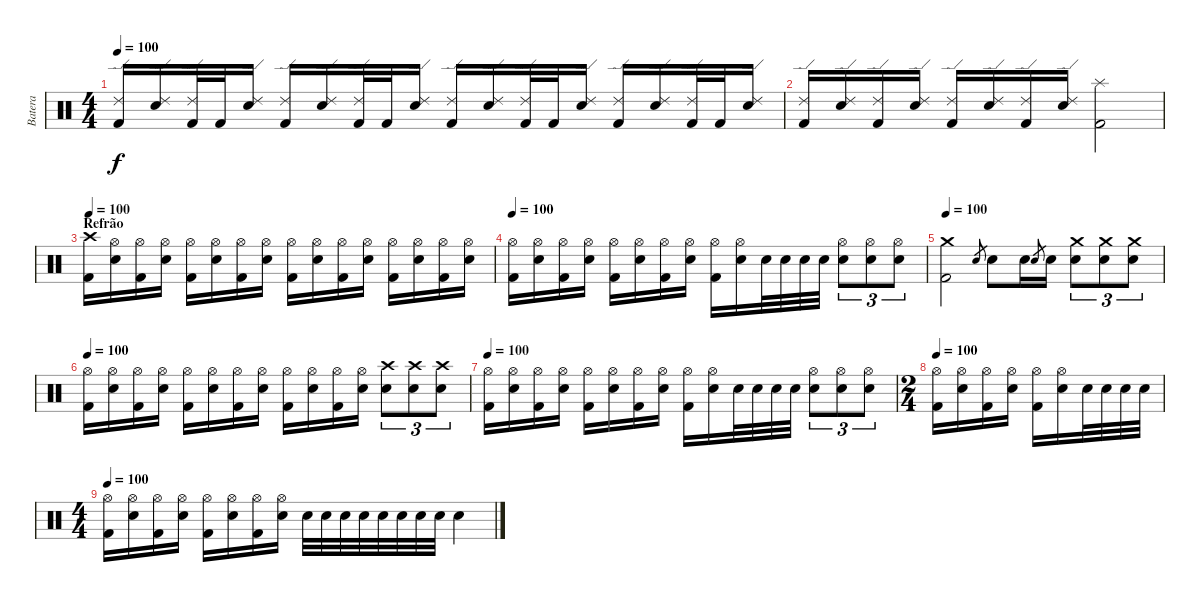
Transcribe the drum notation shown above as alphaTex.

\track ("Batera" "Batera") {instrument percussion}
\staff {score}
\articulation defaults
\ts (4 4)
\tempo 100
\clef neutral
\ks c
("Ride (edge) 2" "Kick (hit) 2").16{dy f} ("Ride (edge) 2" "Snare (hit) 2").16 ("Ride (edge) 2" "Kick (hit) 2").32 "Kick (hit) 2".32 ("Ride (edge) 2" "Snare (hit) 2").16 ("Ride (edge) 2" "Kick (hit) 2").16 ("Ride (edge) 2" "Snare (hit) 2").16 ("Ride (edge) 2" "Kick (hit) 2").32 "Kick (hit) 2".32 ("Ride (edge) 2" "Snare (hit) 2").16 ("Ride (edge) 2" "Kick (hit) 2").16 ("Ride (edge) 2" "Snare (hit) 2").16 ("Ride (edge) 2" "Kick (hit) 2").32 "Kick (hit) 2".32 ("Ride (edge) 2" "Snare (hit) 2").16 ("Ride (edge) 2" "Kick (hit) 2").16 ("Ride (edge) 2" "Snare (hit) 2").16 ("Ride (edge) 2" "Kick (hit) 2").32 "Kick (hit) 2".32 ("Ride (edge) 2" "Snare (hit) 2").16 |
("Ride (edge) 2" "Kick (hit) 2").16 ("Ride (edge) 2" "Snare (hit) 2").16 ("Ride (edge) 2" "Kick (hit) 2").16 ("Ride (edge) 2" "Snare (hit) 2").16 ("Ride (edge) 2" "Kick (hit) 2").16 ("Ride (edge) 2" "Snare (hit) 2").16 ("Ride (edge) 2" "Kick (hit) 2").16 ("Ride (edge) 2" "Snare (hit) 2").16 ("Splash (hit)" "Kick (hit) 2").2 |
\section ("" "Refrão")
\tempo 100
("Crash high (hit)" "Kick (hit) 2").16 ("Hi-Hat (open)" "Snare (hit) 2").16 ("Hi-Hat (open)" "Kick (hit) 2").16 ("Hi-Hat (open)" "Snare (hit) 2").16 ("Hi-Hat (open)" "Kick (hit) 2").16 ("Hi-Hat (open)" "Snare (hit) 2").16 ("Hi-Hat (open)" "Kick (hit) 2").16 ("Hi-Hat (open)" "Snare (hit) 2").16 ("Hi-Hat (open)" "Kick (hit) 2").16 ("Hi-Hat (open)" "Snare (hit) 2").16 ("Hi-Hat (open)" "Kick (hit) 2").16 ("Hi-Hat (open)" "Snare (hit) 2").16 ("Hi-Hat (open)" "Kick (hit) 2").16 ("Hi-Hat (open)" "Snare (hit) 2").16 ("Hi-Hat (open)" "Kick (hit) 2").16 ("Hi-Hat (open)" "Snare (hit) 2").16 |
\tempo 100
("Hi-Hat (open)" "Kick (hit) 2").16 ("Hi-Hat (open)" "Snare (hit) 2").16 ("Hi-Hat (open)" "Kick (hit) 2").16 ("Hi-Hat (open)" "Snare (hit) 2").16 ("Hi-Hat (open)" "Kick (hit) 2").16 ("Hi-Hat (open)" "Snare (hit) 2").16 ("Hi-Hat (open)" "Kick (hit) 2").16 ("Hi-Hat (open)" "Snare (hit) 2").16 ("Hi-Hat (open)" "Kick (hit) 2").16 ("Hi-Hat (open)" "Snare (hit) 2").16 "Snare (hit) 2".32 "Snare (hit) 2".32 "Snare (hit) 2".32 "Snare (hit) 2".32 ("Hi-Hat (open)" "Snare (hit) 2").8{tu (3 2)} ("Hi-Hat (open)" "Snare (hit) 2").8{tu (3 2)} ("Hi-Hat (open)" "Snare (hit) 2").8{tu (3 2)} |
\tempo 100
("Crash medium (hit)" "Kick (hit) 2").2 "Snare (hit) 2".8{gr} "Snare (hit) 2".8 "Snare (hit) 2".16 "Snare (hit) 2".8{gr} "Snare (hit) 2".16 ("Crash medium (hit)" "Snare (hit) 2").8{tu (3 2)} ("Crash medium (hit)" "Snare (hit) 2").8{tu (3 2)} ("Crash medium (hit)" "Snare (hit) 2").8{tu (3 2)} |
\tempo 100
("Hi-Hat (open)" "Kick (hit) 2").16 ("Hi-Hat (open)" "Snare (hit) 2").16 ("Hi-Hat (open)" "Kick (hit) 2").16 ("Hi-Hat (open)" "Snare (hit) 2").16 ("Hi-Hat (open)" "Kick (hit) 2").16 ("Hi-Hat (open)" "Snare (hit) 2").16 ("Hi-Hat (open)" "Kick (hit) 2").16 ("Hi-Hat (open)" "Snare (hit) 2").16 ("Hi-Hat (open)" "Kick (hit) 2").16 ("Hi-Hat (open)" "Snare (hit) 2").16 ("Hi-Hat (open)" "Kick (hit) 2").16 ("Hi-Hat (open)" "Snare (hit) 2").16 ("Crash high (hit)" "Snare (hit) 2").8{tu (3 2)} ("Crash high (hit)" "Snare (hit) 2").8{tu (3 2)} ("Crash high (hit)" "Snare (hit) 2").8{tu (3 2)} |
\tempo 100
("Hi-Hat (open)" "Kick (hit) 2").16 ("Hi-Hat (open)" "Snare (hit) 2").16 ("Hi-Hat (open)" "Kick (hit) 2").16 ("Hi-Hat (open)" "Snare (hit) 2").16 ("Hi-Hat (open)" "Kick (hit) 2").16 ("Hi-Hat (open)" "Snare (hit) 2").16 ("Hi-Hat (open)" "Kick (hit) 2").16 ("Hi-Hat (open)" "Snare (hit) 2").16 ("Hi-Hat (open)" "Kick (hit) 2").16 ("Hi-Hat (open)" "Snare (hit) 2").16 "Snare (hit) 2".32 "Snare (hit) 2".32 "Snare (hit) 2".32 "Snare (hit) 2".32 ("Hi-Hat (open)" "Snare (hit) 2").8{tu (3 2)} ("Hi-Hat (open)" "Snare (hit) 2").8{tu (3 2)} ("Hi-Hat (open)" "Snare (hit) 2").8{tu (3 2)} |
\ts (2 4)
\tempo 100
("Hi-Hat (open)" "Kick (hit) 2").16 ("Hi-Hat (open)" "Snare (hit) 2").16 ("Hi-Hat (open)" "Kick (hit) 2").16 ("Hi-Hat (open)" "Snare (hit) 2").16 ("Hi-Hat (open)" "Kick (hit) 2").16 ("Hi-Hat (open)" "Snare (hit) 2").16 "Snare (hit) 2".32 "Snare (hit) 2".32 "Snare (hit) 2".32 "Snare (hit) 2".32 |
\ts (4 4)
\tempo 100
("Hi-Hat (open)" "Kick (hit) 2").16 ("Hi-Hat (open)" "Snare (hit) 2").16 ("Hi-Hat (open)" "Kick (hit) 2").16 ("Hi-Hat (open)" "Snare (hit) 2").16 ("Hi-Hat (open)" "Kick (hit) 2").16 ("Hi-Hat (open)" "Snare (hit) 2").16 ("Hi-Hat (open)" "Kick (hit) 2").16 ("Hi-Hat (open)" "Snare (hit) 2").16 "Snare (hit) 2".32 "Snare (hit) 2".32 "Snare (hit) 2".32 "Snare (hit) 2".32 "Snare (hit) 2".32 "Snare (hit) 2".32 "Snare (hit) 2".32 "Snare (hit) 2".32 "Snare (hit) 2".4
